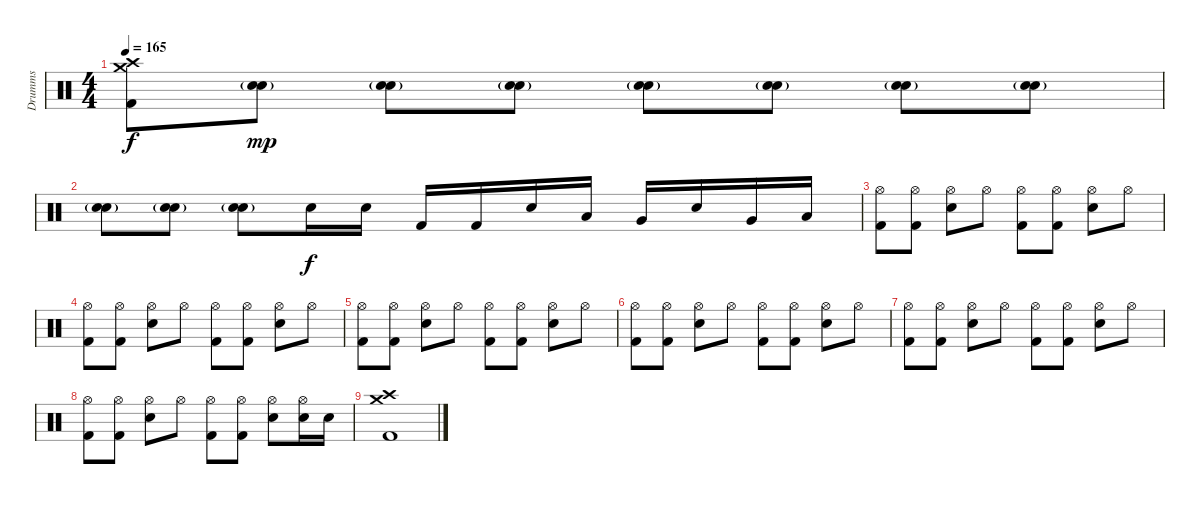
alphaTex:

\track ("Drumms" "Drumms") {instrument percussion}
\staff {score}
\articulation defaults
\ts (4 4)
\tempo 165
\clef neutral
\ks c
("Crash high (hit)" "Crash medium (hit)" "Kick (hit) 2").8{dy f} ("Electric Snare (hit)"{g} "Electric Snare (hit)").8{dy mp} ("Electric Snare (hit)"{g} "Electric Snare (hit)").8 ("Electric Snare (hit)"{g} "Electric Snare (hit)").8 ("Electric Snare (hit)"{g} "Electric Snare (hit)").8 ("Electric Snare (hit)"{g} "Electric Snare (hit)").8 ("Electric Snare (hit)"{g} "Electric Snare (hit)").8 ("Electric Snare (hit)"{g} "Electric Snare (hit)").8 |
("Electric Snare (hit)"{g} "Electric Snare (hit)").8 ("Electric Snare (hit)"{g} "Electric Snare (hit)").8 ("Electric Snare (hit)"{g} "Electric Snare (hit)").8 "Electric Snare (hit)".16{dy f} "Electric Snare (hit)".16 "Kick (hit) 2".16 "Kick (hit) 2".16 "Electric Snare (hit)".16 "Low Tom (hit)".16 "Very Low Tom (hit)".16 "Electric Snare (hit)".16 "Very Low Tom (hit)".16 "Low Tom (hit)".16 |
("Hi-Hat (open)" "Kick (hit) 2").8 ("Hi-Hat (open)" "Kick (hit) 2").8 ("Hi-Hat (open)" "Electric Snare (hit)").8 "Hi-Hat (open)".8 ("Hi-Hat (open)" "Kick (hit) 2").8 ("Hi-Hat (open)" "Kick (hit) 2").8 ("Hi-Hat (open)" "Electric Snare (hit)").8 "Hi-Hat (open)".8 |
("Hi-Hat (open)" "Kick (hit) 2").8 ("Hi-Hat (open)" "Kick (hit) 2").8 ("Hi-Hat (open)" "Electric Snare (hit)").8 "Hi-Hat (open)".8 ("Hi-Hat (open)" "Kick (hit) 2").8 ("Hi-Hat (open)" "Kick (hit) 2").8 ("Hi-Hat (open)" "Electric Snare (hit)").8 "Hi-Hat (open)".8 |
("Hi-Hat (open)" "Kick (hit) 2").8 ("Hi-Hat (open)" "Kick (hit) 2").8 ("Hi-Hat (open)" "Electric Snare (hit)").8 "Hi-Hat (open)".8 ("Hi-Hat (open)" "Kick (hit) 2").8 ("Hi-Hat (open)" "Kick (hit) 2").8 ("Hi-Hat (open)" "Electric Snare (hit)").8 "Hi-Hat (open)".8 |
("Hi-Hat (open)" "Kick (hit) 2").8 ("Hi-Hat (open)" "Kick (hit) 2").8 ("Hi-Hat (open)" "Electric Snare (hit)").8 "Hi-Hat (open)".8 ("Hi-Hat (open)" "Kick (hit) 2").8 ("Hi-Hat (open)" "Kick (hit) 2").8 ("Hi-Hat (open)" "Electric Snare (hit)").8 "Hi-Hat (open)".8 |
("Hi-Hat (open)" "Kick (hit) 2").8 ("Hi-Hat (open)" "Kick (hit) 2").8 ("Hi-Hat (open)" "Electric Snare (hit)").8 "Hi-Hat (open)".8 ("Hi-Hat (open)" "Kick (hit) 2").8 ("Hi-Hat (open)" "Kick (hit) 2").8 ("Hi-Hat (open)" "Electric Snare (hit)").8 "Hi-Hat (open)".8 |
("Hi-Hat (open)" "Kick (hit) 2").8 ("Hi-Hat (open)" "Kick (hit) 2").8 ("Hi-Hat (open)" "Electric Snare (hit)").8 "Hi-Hat (open)".8 ("Hi-Hat (open)" "Kick (hit) 2").8 ("Hi-Hat (open)" "Kick (hit) 2").8 ("Hi-Hat (open)" "Electric Snare (hit)").8 ("Hi-Hat (open)" "Electric Snare (hit)").16 "Electric Snare (hit)".16 |
("Crash medium (hit)" "Crash high (hit)" "Kick (hit) 2").1
